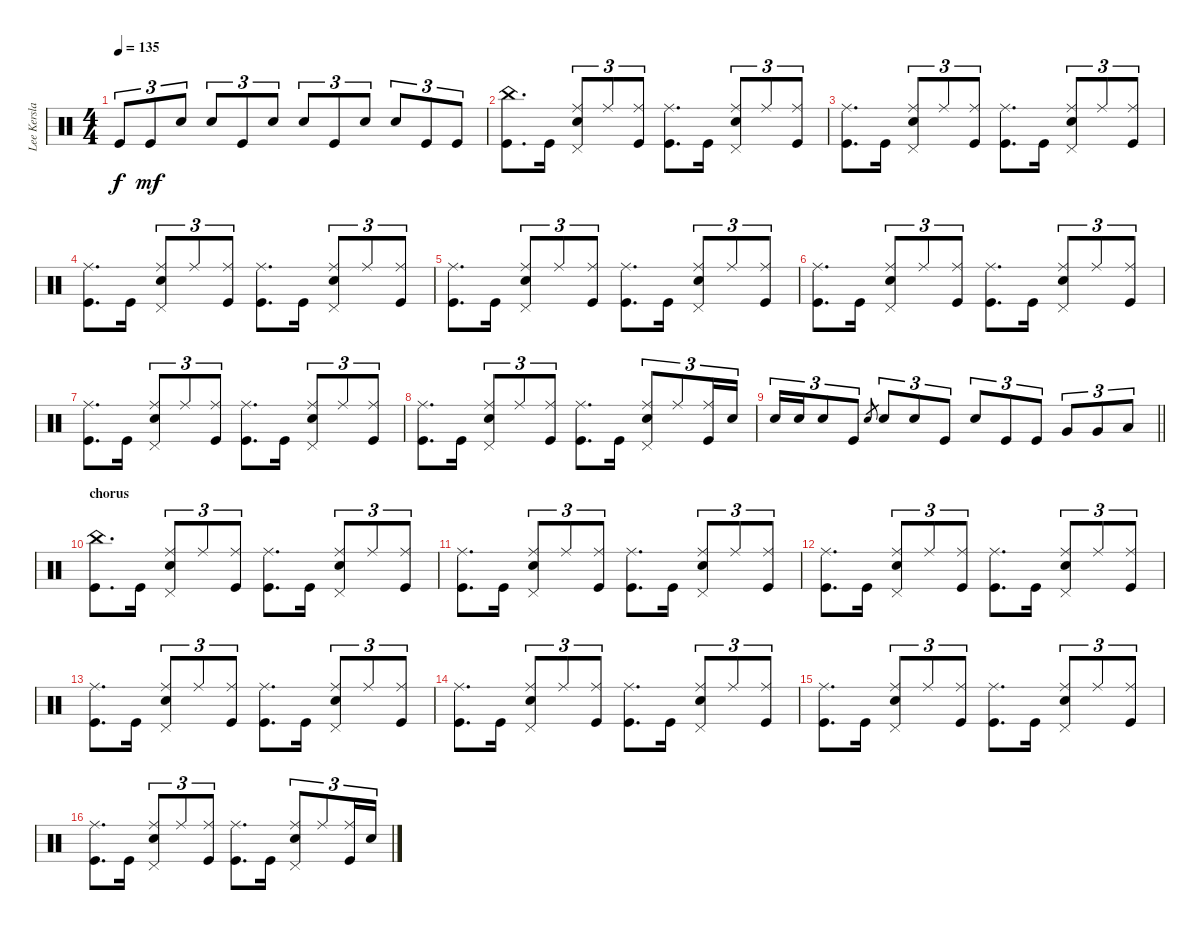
\track ("Lee Kerslake (drums)" "Lee Kersla") {instrument percussion}
\staff {score}
\articulation defaults
\ts (4 4)
\tempo 135
\clef neutral
\ks c "Kick (hit)".8{tu (3 2) dy f} "Kick (hit)".8{tu (3 2) dy mf} "Snare (hit) 2".8{tu (3 2)} "Snare (hit) 2".8{tu (3 2)} "Kick (hit)".8{tu (3 2)} "Snare (hit) 2".8{tu (3 2)} "Snare (hit) 2".8{tu (3 2)} "Kick (hit)".8{tu (3 2)} "Snare (hit) 2".8{tu (3 2)} "Snare (hit) 2".8{tu (3 2)} "Kick (hit)".8{tu (3 2)} "Kick (hit)".8{tu (3 2)}
|
("China (hit)" "Kick (hit)").8{d} "Kick (hit)".16 ("Ride (middle)" "Pedal Hi-Hat (hit)" "Snare (hit) 2").8{tu (3 2)} "Ride (middle)".8{tu (3 2)} ("Ride (middle)" "Kick (hit)").8{tu (3 2)} ("Ride (middle)" "Kick (hit)").8{d} "Kick (hit)".16 ("Ride (middle)" "Pedal Hi-Hat (hit)" "Snare (hit) 2").8{tu (3 2)} "Ride (middle)".8{tu (3 2)} ("Ride (middle)" "Kick (hit)").8{tu (3 2)} |
("Ride (middle)" "Kick (hit)").8{d} "Kick (hit)".16 ("Ride (middle)" "Pedal Hi-Hat (hit)" "Snare (hit) 2").8{tu (3 2)} "Ride (middle)".8{tu (3 2)} ("Ride (middle)" "Kick (hit)").8{tu (3 2)} ("Ride (middle)" "Kick (hit)").8{d} "Kick (hit)".16 ("Ride (middle)" "Pedal Hi-Hat (hit)" "Snare (hit) 2").8{tu (3 2)} "Ride (middle)".8{tu (3 2)} ("Ride (middle)" "Kick (hit)").8{tu (3 2)} |
("Ride (middle)" "Kick (hit)").8{d} "Kick (hit)".16 ("Ride (middle)" "Pedal Hi-Hat (hit)" "Snare (hit) 2").8{tu (3 2)} "Ride (middle)".8{tu (3 2)} ("Ride (middle)" "Kick (hit)").8{tu (3 2)} ("Ride (middle)" "Kick (hit)").8{d} "Kick (hit)".16 ("Ride (middle)" "Pedal Hi-Hat (hit)" "Snare (hit) 2").8{tu (3 2)} "Ride (middle)".8{tu (3 2)} ("Ride (middle)" "Kick (hit)").8{tu (3 2)} |
("Ride (middle)" "Kick (hit)").8{d} "Kick (hit)".16 ("Ride (middle)" "Pedal Hi-Hat (hit)" "Snare (hit) 2").8{tu (3 2)} "Ride (middle)".8{tu (3 2)} ("Ride (middle)" "Kick (hit)").8{tu (3 2)} ("Ride (middle)" "Kick (hit)").8{d} "Kick (hit)".16 ("Ride (middle)" "Pedal Hi-Hat (hit)" "Snare (hit) 2").8{tu (3 2)} "Ride (middle)".8{tu (3 2)} ("Ride (middle)" "Kick (hit)").8{tu (3 2)} |
("Ride (middle)" "Kick (hit)").8{d} "Kick (hit)".16 ("Ride (middle)" "Pedal Hi-Hat (hit)" "Snare (hit) 2").8{tu (3 2)} "Ride (middle)".8{tu (3 2)} ("Ride (middle)" "Kick (hit)").8{tu (3 2)} ("Ride (middle)" "Kick (hit)").8{d} "Kick (hit)".16 ("Ride (middle)" "Pedal Hi-Hat (hit)" "Snare (hit) 2").8{tu (3 2)} "Ride (middle)".8{tu (3 2)} ("Ride (middle)" "Kick (hit)").8{tu (3 2)} |
("Ride (middle)" "Kick (hit)").8{d} "Kick (hit)".16 ("Ride (middle)" "Pedal Hi-Hat (hit)" "Snare (hit) 2").8{tu (3 2)} "Ride (middle)".8{tu (3 2)} ("Ride (middle)" "Kick (hit)").8{tu (3 2)} ("Ride (middle)" "Kick (hit)").8{d} "Kick (hit)".16 ("Ride (middle)" "Pedal Hi-Hat (hit)" "Snare (hit) 2").8{tu (3 2)} "Ride (middle)".8{tu (3 2)} ("Ride (middle)" "Kick (hit)").8{tu (3 2)} |
("Ride (middle)" "Kick (hit)").8{d} "Kick (hit)".16 ("Ride (middle)" "Pedal Hi-Hat (hit)" "Snare (hit) 2").8{tu (3 2)} "Ride (middle)".8{tu (3 2)} ("Ride (middle)" "Kick (hit)").8{tu (3 2)} ("Ride (middle)" "Kick (hit)").8{d} "Kick (hit)".16 ("Ride (middle)" "Pedal Hi-Hat (hit)" "Snare (hit) 2").8{tu (3 2)} "Ride (middle)".8{tu (3 2)} ("Ride (middle)" "Kick (hit)").16{tu (3 2)} "Snare (hit) 2".16{tu (3 2)} |
\barLineRight lightlight "Snare (hit) 2".16{tu (3 2)} "Snare (hit) 2".16{tu (3 2)} "Snare (hit) 2".8{tu (3 2)} "Kick (hit)".8{tu (3 2)} "Snare (hit) 2".8{gr} "Snare (hit) 2".8{tu (3 2)} "Snare (hit) 2".8{tu (3 2)} "Kick (hit)".8{tu (3 2)} "Snare (hit) 2".8{tu (3 2)} "Kick (hit)".8{tu (3 2)} "Kick (hit)".8{tu (3 2)} "Very Low Tom (hit)".8{tu (3 2)} "Very Low Tom (hit)".8{tu (3 2)} "Low Floor Tom (hit)".8{tu (3 2)}
|
\section ("" "chorus")
("China (hit)" "Kick (hit)").8{d} "Kick (hit)".16 ("Ride (middle)" "Pedal Hi-Hat (hit)" "Snare (hit) 2").8{tu (3 2)} "Ride (middle)".8{tu (3 2)} ("Ride (middle)" "Kick (hit)").8{tu (3 2)} ("Ride (middle)" "Kick (hit)").8{d} "Kick (hit)".16 ("Ride (middle)" "Pedal Hi-Hat (hit)" "Snare (hit) 2").8{tu (3 2)} "Ride (middle)".8{tu (3 2)} ("Ride (middle)" "Kick (hit)").8{tu (3 2)} |
("Ride (middle)" "Kick (hit)").8{d} "Kick (hit)".16 ("Ride (middle)" "Pedal Hi-Hat (hit)" "Snare (hit) 2").8{tu (3 2)} "Ride (middle)".8{tu (3 2)} ("Ride (middle)" "Kick (hit)").8{tu (3 2)} ("Ride (middle)" "Kick (hit)").8{d} "Kick (hit)".16 ("Ride (middle)" "Pedal Hi-Hat (hit)" "Snare (hit) 2").8{tu (3 2)} "Ride (middle)".8{tu (3 2)} ("Ride (middle)" "Kick (hit)").8{tu (3 2)} |
("Ride (middle)" "Kick (hit)").8{d} "Kick (hit)".16 ("Ride (middle)" "Pedal Hi-Hat (hit)" "Snare (hit) 2").8{tu (3 2)} "Ride (middle)".8{tu (3 2)} ("Ride (middle)" "Kick (hit)").8{tu (3 2)} ("Ride (middle)" "Kick (hit)").8{d} "Kick (hit)".16 ("Ride (middle)" "Pedal Hi-Hat (hit)" "Snare (hit) 2").8{tu (3 2)} "Ride (middle)".8{tu (3 2)} ("Ride (middle)" "Kick (hit)").8{tu (3 2)} |
("Ride (middle)" "Kick (hit)").8{d} "Kick (hit)".16 ("Ride (middle)" "Pedal Hi-Hat (hit)" "Snare (hit) 2").8{tu (3 2)} "Ride (middle)".8{tu (3 2)} ("Ride (middle)" "Kick (hit)").8{tu (3 2)} ("Ride (middle)" "Kick (hit)").8{d} "Kick (hit)".16 ("Ride (middle)" "Pedal Hi-Hat (hit)" "Snare (hit) 2").8{tu (3 2)} "Ride (middle)".8{tu (3 2)} ("Ride (middle)" "Kick (hit)").8{tu (3 2)} |
("Ride (middle)" "Kick (hit)").8{d} "Kick (hit)".16 ("Ride (middle)" "Pedal Hi-Hat (hit)" "Snare (hit) 2").8{tu (3 2)} "Ride (middle)".8{tu (3 2)} ("Ride (middle)" "Kick (hit)").8{tu (3 2)} ("Ride (middle)" "Kick (hit)").8{d} "Kick (hit)".16 ("Ride (middle)" "Pedal Hi-Hat (hit)" "Snare (hit) 2").8{tu (3 2)} "Ride (middle)".8{tu (3 2)} ("Ride (middle)" "Kick (hit)").8{tu (3 2)} |
("Ride (middle)" "Kick (hit)").8{d} "Kick (hit)".16 ("Ride (middle)" "Pedal Hi-Hat (hit)" "Snare (hit) 2").8{tu (3 2)} "Ride (middle)".8{tu (3 2)} ("Ride (middle)" "Kick (hit)").8{tu (3 2)} ("Ride (middle)" "Kick (hit)").8{d} "Kick (hit)".16 ("Ride (middle)" "Pedal Hi-Hat (hit)" "Snare (hit) 2").8{tu (3 2)} "Ride (middle)".8{tu (3 2)} ("Ride (middle)" "Kick (hit)").8{tu (3 2)} |
("Ride (middle)" "Kick (hit)").8{d} "Kick (hit)".16 ("Ride (middle)" "Pedal Hi-Hat (hit)" "Snare (hit) 2").8{tu (3 2)} "Ride (middle)".8{tu (3 2)} ("Ride (middle)" "Kick (hit)").8{tu (3 2)} ("Ride (middle)" "Kick (hit)").8{d} "Kick (hit)".16 ("Ride (middle)" "Pedal Hi-Hat (hit)" "Snare (hit) 2").8{tu (3 2)} "Ride (middle)".8{tu (3 2)} ("Ride (middle)" "Kick (hit)").16{tu (3 2)} "Snare (hit) 2".16{tu (3 2)}
